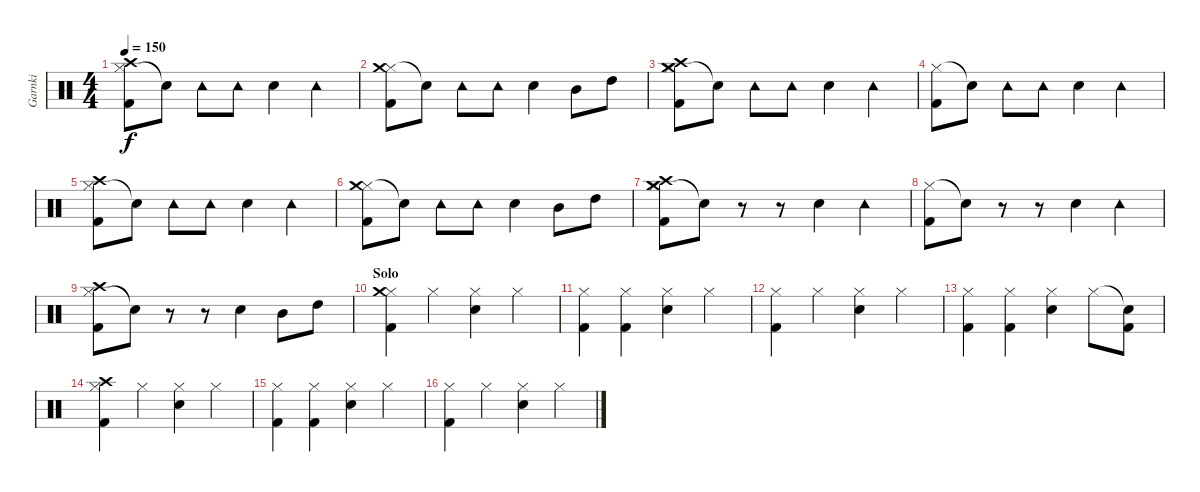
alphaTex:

\track ("Garnki" "Garnki") {instrument percussion}
\staff {score}
\articulation defaults
\ts (4 4)
\tempo 150
\clef neutral
\ks c
("Hi-Hat (closed)" "Crash high (hit)" "Kick (hit) 2").8{dy f} "Snare (hit)"{t}.8 "Tambourine (hit)".8 "Tambourine (hit)".8 "Snare (hit) 2".4 "Tambourine (hit)".4 |
("Hi-Hat (closed)" "Crash medium (hit)" "Kick (hit) 2").8 "Snare (hit)"{t}.8 "Tambourine (hit)".8 "Tambourine (hit)".8 "Snare (hit) 2".4 "Mid Tom (hit)".8 "High Tom (hit)".8 |
("Hi-Hat (closed)" "Crash medium (hit)" "Kick (hit) 2" "Crash high (hit)").8 "Snare (hit)"{t}.8 "Tambourine (hit)".8 "Tambourine (hit)".8 "Snare (hit) 2".4 "Tambourine (hit)".4 |
("Hi-Hat (closed)" "Kick (hit) 2").8 "Snare (hit)"{t}.8 "Tambourine (hit)".8 "Tambourine (hit)".8 "Snare (hit) 2".4 "Tambourine (hit)".4 |
("Hi-Hat (closed)" "Crash high (hit)" "Kick (hit) 2").8 "Snare (hit)"{t}.8 "Tambourine (hit)".8 "Tambourine (hit)".8 "Snare (hit) 2".4 "Tambourine (hit)".4 |
("Hi-Hat (closed)" "Crash medium (hit)" "Kick (hit) 2").8 "Snare (hit)"{t}.8 "Tambourine (hit)".8 "Tambourine (hit)".8 "Snare (hit) 2".4 "Mid Tom (hit)".8 "High Tom (hit)".8 |
("Hi-Hat (closed)" "Crash medium (hit)" "Kick (hit) 2" "Crash high (hit)").8 "Snare (hit)"{t}.8 r.8 r.8 "Snare (hit) 2".4 "Tambourine (hit)".4 |
("Hi-Hat (closed)" "Kick (hit) 2").8 "Snare (hit)"{t}.8 r.8 r.8 "Snare (hit) 2".4 "Tambourine (hit)".4 |
("Hi-Hat (closed)" "Crash high (hit)" "Kick (hit) 2").8 "Snare (hit)"{t}.8 r.8 r.8 "Snare (hit) 2".4 "Mid Tom (hit)".8 "High Tom (hit)".8 |
\section ("" "Solo")
("Hi-Hat (closed)" "Crash medium (hit)" "Kick (hit) 2").4 "Hi-Hat (closed)".4 ("Hi-Hat (closed)" "Snare (hit) 2").4 "Hi-Hat (closed)".4 |
("Hi-Hat (closed)" "Kick (hit) 2").4 ("Hi-Hat (closed)" "Kick (hit) 2").4 ("Hi-Hat (closed)" "Snare (hit) 2").4 "Hi-Hat (closed)".4 |
("Hi-Hat (closed)" "Kick (hit) 2").4 "Hi-Hat (closed)".4 ("Hi-Hat (closed)" "Snare (hit) 2").4 "Hi-Hat (closed)".4 |
("Hi-Hat (closed)" "Kick (hit) 2").4 ("Hi-Hat (closed)" "Kick (hit) 2").4 ("Hi-Hat (closed)" "Snare (hit) 2").4 "Hi-Hat (closed)".8 ("Snare (hit)"{t} "Kick (hit) 2").8 |
("Hi-Hat (closed)" "Crash high (hit)" "Kick (hit) 2").4 "Hi-Hat (closed)".4 ("Hi-Hat (closed)" "Snare (hit) 2").4 "Hi-Hat (closed)".4 |
("Hi-Hat (closed)" "Kick (hit) 2").4 ("Hi-Hat (closed)" "Kick (hit) 2").4 ("Hi-Hat (closed)" "Snare (hit) 2").4 "Hi-Hat (closed)".4 |
("Hi-Hat (closed)" "Kick (hit) 2").4 "Hi-Hat (closed)".4 ("Hi-Hat (closed)" "Snare (hit) 2").4 "Hi-Hat (closed)".4
